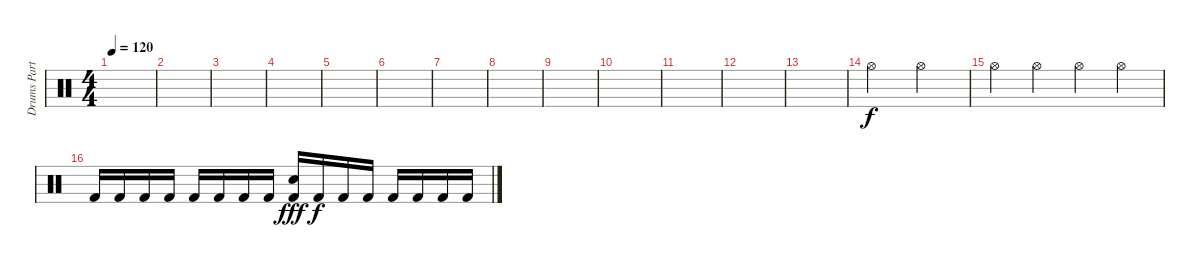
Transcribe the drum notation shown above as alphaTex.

\track ("Drums Part" "Drums Part") {instrument percussion}
\staff {score}
\articulation defaults
\ts (4 4)
\tempo 120
\clef neutral
\ks c
|
|
|
|
|
|
|
|
|
|
|
|
|
"Hi-Hat (open)".2 "Hi-Hat (open)".2 |
"Hi-Hat (open)".4 "Hi-Hat (open)".4 "Hi-Hat (open)".4 "Hi-Hat (open)".4 |
"Kick (hit) 2".16{dy f} "Kick (hit) 2".16 "Kick (hit) 2".16 "Kick (hit) 2".16 "Kick (hit) 2".16 "Kick (hit) 2".16 "Kick (hit) 2".16 "Kick (hit) 2".16 ("Electric Snare (hit)" "Kick (hit) 2").16{dy fff} "Kick (hit) 2".16{dy f} "Kick (hit) 2".16 "Kick (hit) 2".16 "Kick (hit) 2".16 "Kick (hit) 2".16 "Kick (hit) 2".16 "Kick (hit) 2".16
